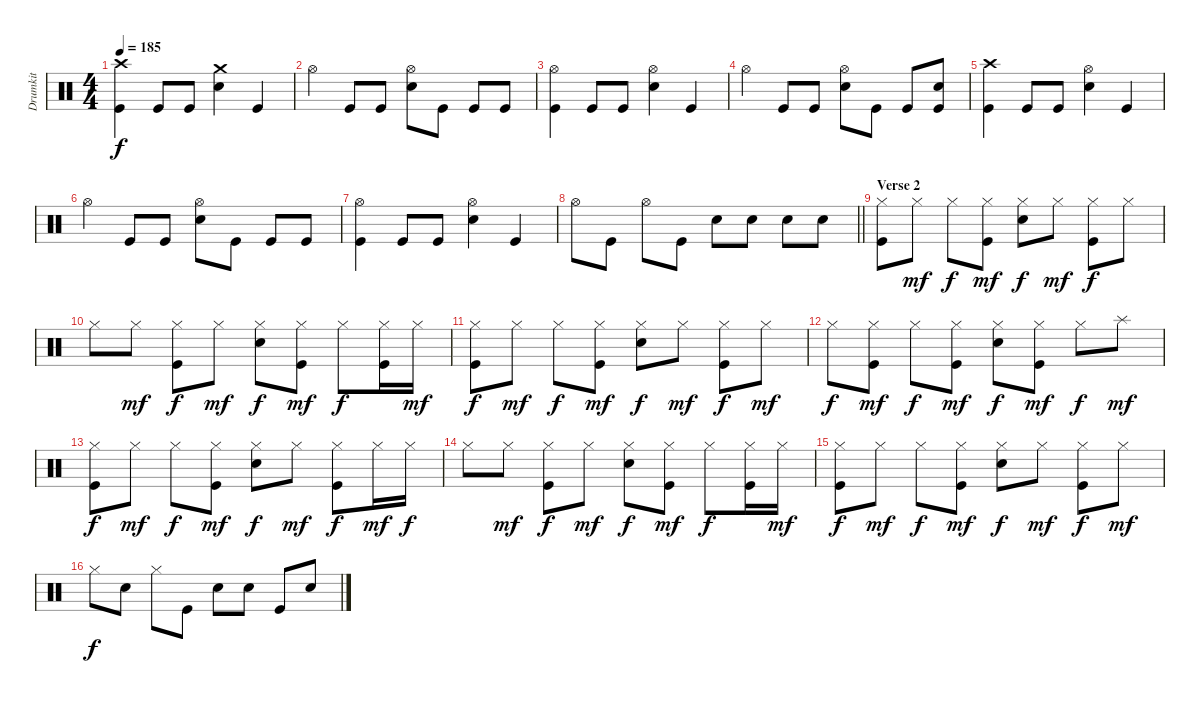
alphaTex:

\track ("Drumkit" "Drumkit") {instrument percussion}
\staff {score}
\articulation defaults
\ts (4 4)
\tempo 185
\clef neutral
\ks c
("Kick (hit)" "Crash high (hit)").4{dy f} "Kick (hit)".8 "Kick (hit)".8 ("Snare (hit) 2" "Crash medium (hit)").4 "Kick (hit)".4 |
"Hi-Hat (open)".4 "Kick (hit)".8 "Kick (hit)".8 ("Snare (hit) 2" "Hi-Hat (open)").8 "Kick (hit)".8 "Kick (hit)".8 "Kick (hit)".8 |
("Hi-Hat (open)" "Kick (hit)").4 "Kick (hit)".8 "Kick (hit)".8 ("Snare (hit) 2" "Hi-Hat (open)").4 "Kick (hit)".4 |
"Hi-Hat (open)".4 "Kick (hit)".8 "Kick (hit)".8 ("Snare (hit) 2" "Hi-Hat (open)").8 "Kick (hit)".8 "Kick (hit)".8 ("Snare (hit) 2" "Kick (hit)").8 |
("Crash high (hit)" "Kick (hit)").4 "Kick (hit)".8 "Kick (hit)".8 ("Snare (hit) 2" "Hi-Hat (open)").4 "Kick (hit)".4 |
"Hi-Hat (open)".4 "Kick (hit)".8 "Kick (hit)".8 ("Snare (hit) 2" "Hi-Hat (open)").8 "Kick (hit)".8 "Kick (hit)".8 "Kick (hit)".8 |
("Hi-Hat (open)" "Kick (hit)").4 "Kick (hit)".8 "Kick (hit)".8 ("Snare (hit) 2" "Hi-Hat (open)").4 "Kick (hit)".4 |
\barLineRight lightlight "Hi-Hat (open)".8 "Kick (hit)".8 "Hi-Hat (open)".8 "Kick (hit)".8 "Snare (hit) 2".8 "Snare (hit) 2".8 "Snare (hit) 2".8 "Snare (hit) 2".8
|
\section ("" "Verse 2")
("Hi-Hat (closed)" "Kick (hit)").8 "Hi-Hat (closed)".8{dy mf} "Hi-Hat (closed)".8{dy f} ("Hi-Hat (closed)" "Kick (hit)").8{dy mf} ("Hi-Hat (closed)" "Snare (hit) 2").8{dy f} "Hi-Hat (closed)".8{dy mf} ("Hi-Hat (closed)" "Kick (hit)").8{dy f} "Hi-Hat (closed)".8 |
"Hi-Hat (closed)".8 "Hi-Hat (closed)".8{dy mf} ("Hi-Hat (closed)" "Kick (hit)").8{dy f} "Hi-Hat (closed)".8{dy mf} ("Hi-Hat (closed)" "Snare (hit) 2").8{dy f} ("Hi-Hat (closed)" "Kick (hit)").8{dy mf} "Hi-Hat (closed)".8{dy f} ("Hi-Hat (closed)" "Kick (hit)").16 "Hi-Hat (closed)".16{dy mf} |
("Hi-Hat (closed)" "Kick (hit)").8{dy f} "Hi-Hat (closed)".8{dy mf} "Hi-Hat (closed)".8{dy f} ("Hi-Hat (closed)" "Kick (hit)").8{dy mf} ("Hi-Hat (closed)" "Snare (hit) 2").8{dy f} "Hi-Hat (closed)".8{dy mf} ("Hi-Hat (closed)" "Kick (hit)").8{dy f} "Hi-Hat (closed)".8{dy mf} |
"Hi-Hat (closed)".8{dy f} ("Hi-Hat (closed)" "Kick (hit)").8{dy mf} "Hi-Hat (closed)".8{dy f} ("Hi-Hat (closed)" "Kick (hit)").8{dy mf} ("Hi-Hat (closed)" "Snare (hit) 2").8{dy f} ("Hi-Hat (closed)" "Kick (hit)").8{dy mf} "Hi-Hat (closed)".8{dy f} "Splash (hit)".8{dy mf} |
("Hi-Hat (closed)" "Kick (hit)").8{dy f} "Hi-Hat (closed)".8{dy mf} "Hi-Hat (closed)".8{dy f} ("Hi-Hat (closed)" "Kick (hit)").8{dy mf} ("Hi-Hat (closed)" "Snare (hit) 2").8{dy f} "Hi-Hat (closed)".8{dy mf} ("Hi-Hat (closed)" "Kick (hit)").8{dy f} "Hi-Hat (closed)".16{dy mf} "Hi-Hat (closed)".16{dy f} |
"Hi-Hat (closed)".8 "Hi-Hat (closed)".8{dy mf} ("Hi-Hat (closed)" "Kick (hit)").8{dy f} "Hi-Hat (closed)".8{dy mf} ("Hi-Hat (closed)" "Snare (hit) 2").8{dy f} ("Hi-Hat (closed)" "Kick (hit)").8{dy mf} "Hi-Hat (closed)".8{dy f} ("Hi-Hat (closed)" "Kick (hit)").16 "Hi-Hat (closed)".16{dy mf} |
("Hi-Hat (closed)" "Kick (hit)").8{dy f} "Hi-Hat (closed)".8{dy mf} "Hi-Hat (closed)".8{dy f} ("Hi-Hat (closed)" "Kick (hit)").8{dy mf} ("Hi-Hat (closed)" "Snare (hit) 2").8{dy f} "Hi-Hat (closed)".8{dy mf} ("Hi-Hat (closed)" "Kick (hit)").8{dy f} "Hi-Hat (closed)".8{dy mf} |
"Hi-Hat (closed)".8{dy f} "Snare (hit) 2".8 "Hi-Hat (closed)".8 "Kick (hit)".8 "Snare (hit) 2".8 "Snare (hit) 2".8 "Kick (hit)".8 "Snare (hit) 2".8
